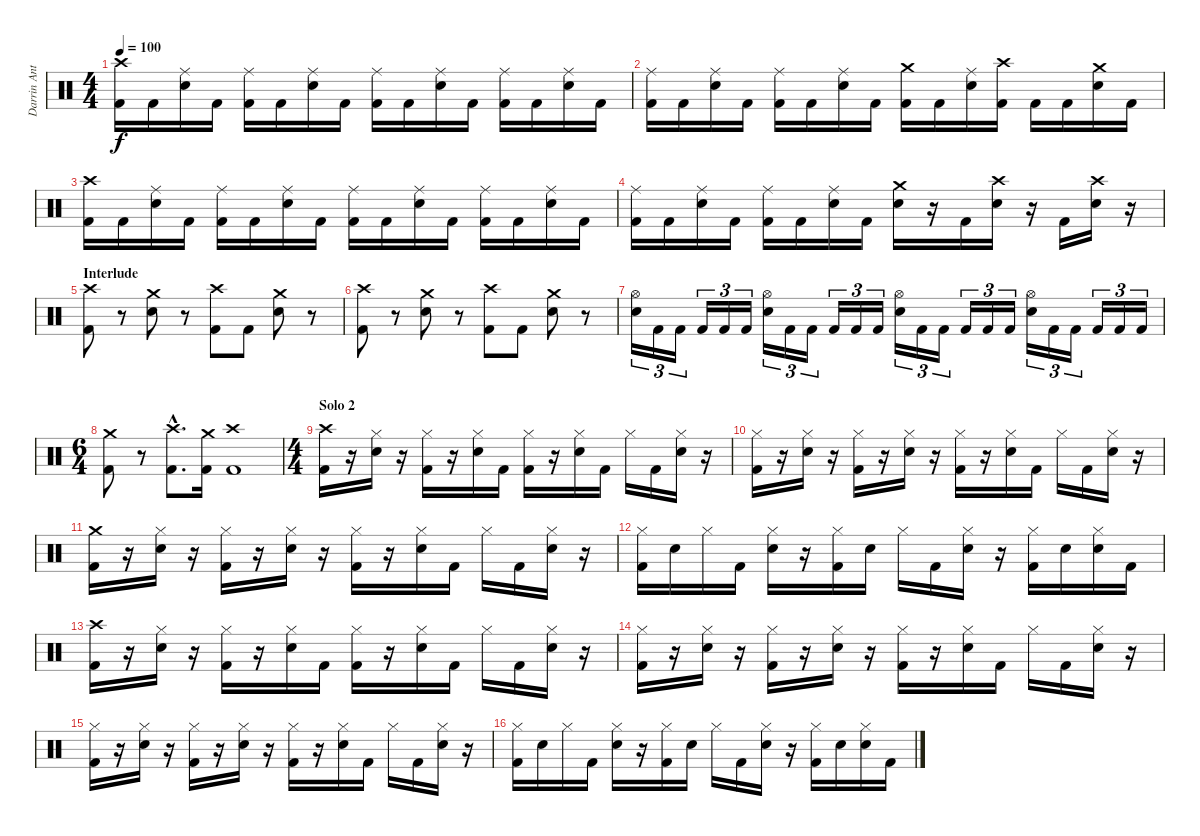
\track ("Darrin Anthony" "Darrin Ant") {instrument percussion}
\staff {score}
\articulation defaults
\ts (4 4)
\tempo 100
\clef neutral
\ks c
("Crash high (hit)" "Kick (hit) 2").16{dy f} "Kick (hit) 2".16 ("Ride (middle)" "Electric Snare (hit)").16 "Kick (hit) 2".16 ("Ride (middle)" "Kick (hit) 2").16 "Kick (hit) 2".16 ("Ride (middle)" "Electric Snare (hit)").16 "Kick (hit) 2".16 ("Ride (middle)" "Kick (hit) 2").16 "Kick (hit) 2".16 ("Ride (middle)" "Electric Snare (hit)").16 "Kick (hit) 2".16 ("Ride (middle)" "Kick (hit) 2").16 "Kick (hit) 2".16 ("Ride (middle)" "Electric Snare (hit)").16 "Kick (hit) 2".16 |
("Ride (middle)" "Kick (hit) 2").16 "Kick (hit) 2".16 ("Ride (middle)" "Electric Snare (hit)").16 "Kick (hit) 2".16 ("Ride (middle)" "Kick (hit) 2").16 "Kick (hit) 2".16 ("Ride (middle)" "Electric Snare (hit)").16 "Kick (hit) 2".16 ("Crash medium (hit)" "Kick (hit) 2").16 "Kick (hit) 2".16 ("Ride (middle)" "Electric Snare (hit)").16 ("Crash high (hit)" "Kick (hit) 2").16 "Kick (hit) 2".16 "Kick (hit) 2".16 ("Crash medium (hit)" "Electric Snare (hit)").16 "Kick (hit) 2".16 |
("Crash high (hit)" "Kick (hit) 2").16 "Kick (hit) 2".16 ("Ride (middle)" "Electric Snare (hit)").16 "Kick (hit) 2".16 ("Ride (middle)" "Kick (hit) 2").16 "Kick (hit) 2".16 ("Ride (middle)" "Electric Snare (hit)").16 "Kick (hit) 2".16 ("Ride (middle)" "Kick (hit) 2").16 "Kick (hit) 2".16 ("Ride (middle)" "Electric Snare (hit)").16 "Kick (hit) 2".16 ("Ride (middle)" "Kick (hit) 2").16 "Kick (hit) 2".16 ("Ride (middle)" "Electric Snare (hit)").16 "Kick (hit) 2".16 |
("Ride (middle)" "Kick (hit) 2").16 "Kick (hit) 2".16 ("Ride (middle)" "Electric Snare (hit)").16 "Kick (hit) 2".16 ("Ride (middle)" "Kick (hit) 2").16 "Kick (hit) 2".16 ("Ride (middle)" "Electric Snare (hit)").16 "Kick (hit) 2".16 ("Crash medium (hit)" "Electric Snare (hit)").16 r.16 "Kick (hit) 2".16 ("Crash high (hit)" "Electric Snare (hit)").16 r.16 "Kick (hit) 2".16 ("Crash high (hit)" "Electric Snare (hit)").16 r.16 |
\section ("" "Interlude")
("Crash high (hit)" "Kick (hit) 2").8 r.8 ("Crash medium (hit)" "Electric Snare (hit)").8 r.8 ("Crash high (hit)" "Kick (hit) 2").8 "Kick (hit) 2".8 ("Crash medium (hit)" "Electric Snare (hit)").8 r.8 |
("Crash high (hit)" "Kick (hit) 2").8 r.8 ("Crash medium (hit)" "Electric Snare (hit)").8 r.8 ("Crash high (hit)" "Kick (hit) 2").8 "Kick (hit) 2".8 ("Crash medium (hit)" "Electric Snare (hit)").8 r.8 |
("Hi-Hat (open)" "Electric Snare (hit)").16{tu (3 2)} "Kick (hit) 2".16{tu (3 2)} "Kick (hit) 2".16{tu (3 2)} "Kick (hit) 2".16{tu (3 2)} "Kick (hit) 2".16{tu (3 2)} "Kick (hit) 2".16{tu (3 2)} ("Hi-Hat (open)" "Electric Snare (hit)").16{tu (3 2)} "Kick (hit) 2".16{tu (3 2)} "Kick (hit) 2".16{tu (3 2)} "Kick (hit) 2".16{tu (3 2)} "Kick (hit) 2".16{tu (3 2)} "Kick (hit) 2".16{tu (3 2)} ("Hi-Hat (open)" "Electric Snare (hit)").16{tu (3 2)} "Kick (hit) 2".16{tu (3 2)} "Kick (hit) 2".16{tu (3 2)} "Kick (hit) 2".16{tu (3 2)} "Kick (hit) 2".16{tu (3 2)} "Kick (hit) 2".16{tu (3 2)} ("Hi-Hat (open)" "Electric Snare (hit)").16{tu (3 2)} "Kick (hit) 2".16{tu (3 2)} "Kick (hit) 2".16{tu (3 2)} "Kick (hit) 2".16{tu (3 2)} "Kick (hit) 2".16{tu (3 2)} "Kick (hit) 2".16{tu (3 2)} |
\ts (6 4)
("Crash medium (hit)" "Kick (hit) 2").8 r.8 ("Crash high (hit)"{hac} "Kick (hit) 2"{hac}).8{d} ("Crash medium (hit)" "Kick (hit) 2").16 ("Crash high (hit)" "Kick (hit) 2").1 |
\ts (4 4)
\section ("" "Solo 2")
("Crash high (hit)" "Kick (hit) 2").16 r.16 ("Hi-Hat (closed)" "Electric Snare (hit)").16 r.16 ("Hi-Hat (closed)" "Kick (hit) 2").16 r.16 ("Hi-Hat (closed)" "Electric Snare (hit)").16 "Kick (hit) 2".16 ("Hi-Hat (closed)" "Kick (hit) 2").16 r.16 ("Hi-Hat (closed)" "Electric Snare (hit)").16 "Kick (hit) 2".16 "Hi-Hat (closed)".16 "Kick (hit) 2".16 ("Hi-Hat (closed)" "Electric Snare (hit)").16 r.16 |
("Hi-Hat (closed)" "Kick (hit) 2").16 r.16 ("Hi-Hat (closed)" "Electric Snare (hit)").16 r.16 ("Hi-Hat (closed)" "Kick (hit) 2").16 r.16 ("Hi-Hat (closed)" "Electric Snare (hit)").16 r.16 ("Hi-Hat (closed)" "Kick (hit) 2").16 r.16 ("Hi-Hat (closed)" "Electric Snare (hit)").16 "Kick (hit) 2".16 "Hi-Hat (closed)".16 "Kick (hit) 2".16 ("Hi-Hat (closed)" "Electric Snare (hit)").16 r.16 |
("Crash medium (hit)" "Kick (hit) 2").16 r.16 ("Hi-Hat (closed)" "Electric Snare (hit)").16 r.16 ("Hi-Hat (closed)" "Kick (hit) 2").16 r.16 ("Hi-Hat (closed)" "Electric Snare (hit)").16 r.16 ("Hi-Hat (closed)" "Kick (hit) 2").16 r.16 ("Hi-Hat (closed)" "Electric Snare (hit)").16 "Kick (hit) 2".16 "Hi-Hat (closed)".16 "Kick (hit) 2".16 ("Hi-Hat (closed)" "Electric Snare (hit)").16 r.16 |
("Hi-Hat (closed)" "Kick (hit) 2").16 "Electric Snare (hit)".16 "Hi-Hat (closed)".16 "Kick (hit) 2".16 ("Hi-Hat (closed)" "Electric Snare (hit)").16 r.16 ("Hi-Hat (closed)" "Kick (hit) 2").16 "Electric Snare (hit)".16 "Hi-Hat (closed)".16 "Kick (hit) 2".16 ("Hi-Hat (closed)" "Electric Snare (hit)").16 r.16 ("Hi-Hat (closed)" "Kick (hit) 2").16 "Electric Snare (hit)".16 ("Hi-Hat (closed)" "Electric Snare (hit)").16 "Kick (hit) 2".16 |
("Crash high (hit)" "Kick (hit) 2").16 r.16 ("Hi-Hat (closed)" "Electric Snare (hit)").16 r.16 ("Hi-Hat (closed)" "Kick (hit) 2").16 r.16 ("Hi-Hat (closed)" "Electric Snare (hit)").16 "Kick (hit) 2".16 ("Hi-Hat (closed)" "Kick (hit) 2").16 r.16 ("Hi-Hat (closed)" "Electric Snare (hit)").16 "Kick (hit) 2".16 "Hi-Hat (closed)".16 "Kick (hit) 2".16 ("Hi-Hat (closed)" "Electric Snare (hit)").16 r.16 |
("Hi-Hat (closed)" "Kick (hit) 2").16 r.16 ("Hi-Hat (closed)" "Electric Snare (hit)").16 r.16 ("Hi-Hat (closed)" "Kick (hit) 2").16 r.16 ("Hi-Hat (closed)" "Electric Snare (hit)").16 r.16 ("Hi-Hat (closed)" "Kick (hit) 2").16 r.16 ("Hi-Hat (closed)" "Electric Snare (hit)").16 "Kick (hit) 2".16 "Hi-Hat (closed)".16 "Kick (hit) 2".16 ("Hi-Hat (closed)" "Electric Snare (hit)").16 r.16 |
("Hi-Hat (closed)" "Kick (hit) 2").16 r.16 ("Hi-Hat (closed)" "Electric Snare (hit)").16 r.16 ("Hi-Hat (closed)" "Kick (hit) 2").16 r.16 ("Hi-Hat (closed)" "Electric Snare (hit)").16 r.16 ("Hi-Hat (closed)" "Kick (hit) 2").16 r.16 ("Hi-Hat (closed)" "Electric Snare (hit)").16 "Kick (hit) 2".16 "Hi-Hat (closed)".16 "Kick (hit) 2".16 ("Hi-Hat (closed)" "Electric Snare (hit)").16 r.16 |
("Hi-Hat (closed)" "Kick (hit) 2").16 "Electric Snare (hit)".16 "Hi-Hat (closed)".16 "Kick (hit) 2".16 ("Hi-Hat (closed)" "Electric Snare (hit)").16 r.16 ("Hi-Hat (closed)" "Kick (hit) 2").16 "Electric Snare (hit)".16 "Hi-Hat (closed)".16 "Kick (hit) 2".16 ("Hi-Hat (closed)" "Electric Snare (hit)").16 r.16 ("Hi-Hat (closed)" "Kick (hit) 2").16 "Electric Snare (hit)".16 ("Hi-Hat (closed)" "Electric Snare (hit)").16 "Kick (hit) 2".16
